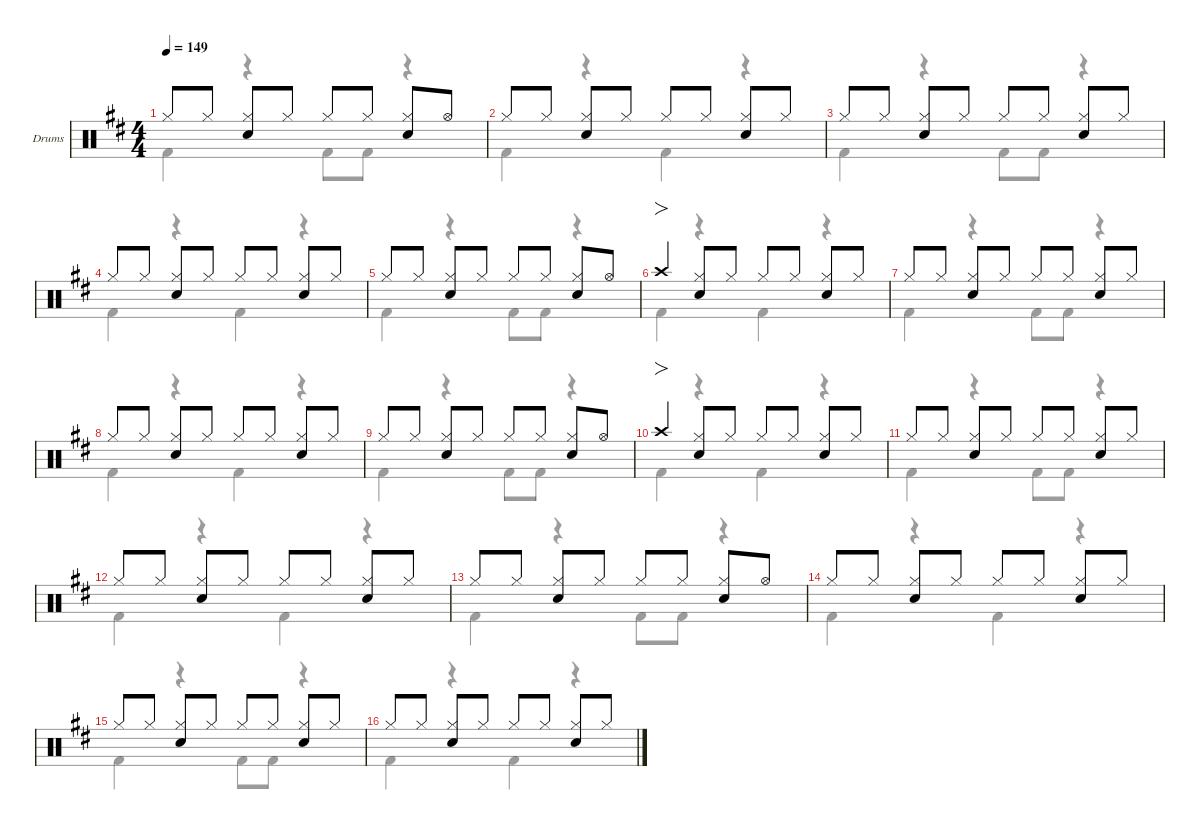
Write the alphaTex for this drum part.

\defaultSystemsLayout 4
\hideDynamics
\bracketExtendMode nobrackets
\firstSystemTrackNameOrientation horizontal
\track ("Drums" "Drums") {defaultSystemsLayout 4 instrument percussion}
\staff {score}
\articulation defaults
\voice
\ts (4 4)
\tempo 149
\clef neutral
\scale
0.244461
\ks d "Hi-Hat (closed)"{acc forcenatural}.8{dy f beam Up} "Hi-Hat (closed)"{acc forcenatural}.8{dy mp beam Up}
("Hi-Hat (closed)"{acc forcenatural} "Snare (hit) 2"{acc forcenatural}).8{dy f beam Up} "Hi-Hat (closed)"{acc forcenatural}.8{dy mp beam Up} "Hi-Hat (closed)"{acc forcenatural}.8{dy f beam Up} "Hi-Hat (closed)"{acc forcenatural}.8{dy mp beam Up} ("Hi-Hat (closed)"{acc forcenatural} "Snare (hit) 2"{acc forcenatural}).8{dy f beam Up} "Hi-Hat (open)"{acc forcenatural}.8{beam Up} |
\scale
0.266618 "Hi-Hat (closed)"{acc forcenatural}.8{beam Up} "Hi-Hat (closed)"{acc forcenatural}.8{dy mp beam Up} ("Hi-Hat (closed)"{acc forcenatural} "Snare (hit) 2"{acc forcenatural}).8{dy f beam Up} "Hi-Hat (closed)"{acc forcenatural}.8{dy mp beam Up} "Hi-Hat (closed)"{acc forcenatural}.8{dy f beam Up} "Hi-Hat (closed)"{acc forcenatural}.8{dy mp beam Up} ("Hi-Hat (closed)"{acc forcenatural} "Snare (hit) 2"{acc forcenatural}).8{dy f beam Up} "Hi-Hat (closed)"{acc forcenatural}.8{dy mp beam Up} |
\scale
0.244461 "Hi-Hat (closed)"{acc forcenatural}.8{dy f beam Up} "Hi-Hat (closed)"{acc forcenatural}.8{dy mp beam Up} ("Hi-Hat (closed)"{acc forcenatural} "Snare (hit) 2"{acc forcenatural}).8{dy f beam Up} "Hi-Hat (closed)"{acc forcenatural}.8{dy mp beam Up} "Hi-Hat (closed)"{acc forcenatural}.8{dy f beam Up} "Hi-Hat (closed)"{acc forcenatural}.8{dy mp beam Up} ("Hi-Hat (closed)"{acc forcenatural} "Snare (hit) 2"{acc forcenatural}).8{dy f beam Up} "Hi-Hat (closed)"{acc forcenatural}.8{dy mp beam Up} |
\scale
0.24446 "Hi-Hat (closed)"{acc forcenatural}.8{dy f beam Up} "Hi-Hat (closed)"{acc forcenatural}.8{dy mp beam Up} ("Hi-Hat (closed)"{acc forcenatural} "Snare (hit) 2"{acc forcenatural}).8{dy f beam Up} "Hi-Hat (closed)"{acc forcenatural}.8{dy mp beam Up} "Hi-Hat (closed)"{acc forcenatural}.8{dy f beam Up} "Hi-Hat (closed)"{acc forcenatural}.8{dy mp beam Up} ("Hi-Hat (closed)"{acc forcenatural} "Snare (hit) 2"{acc forcenatural}).8{dy f beam Up} "Hi-Hat (closed)"{acc forcenatural}.8{dy mp beam Up} |
\scale
0.244461 "Hi-Hat (closed)"{acc forcenatural}.8{dy f beam Up} "Hi-Hat (closed)"{acc forcenatural}.8{dy mp beam Up} ("Hi-Hat (closed)"{acc forcenatural} "Snare (hit) 2"{acc forcenatural}).8{dy f beam Up} "Hi-Hat (closed)"{acc forcenatural}.8{dy mp beam Up} "Hi-Hat (closed)"{acc forcenatural}.8{dy f beam Up} "Hi-Hat (closed)"{acc forcenatural}.8{dy mp beam Up} ("Hi-Hat (closed)"{acc forcenatural} "Snare (hit) 2"{acc forcenatural}).8{dy f beam Up} "Hi-Hat (open)"{acc forcenatural}.8{beam Up} |
\scale
0.266618 "Crash high (hit)"{acc forcenatural}.4{fo beam Up} ("Hi-Hat (closed)"{acc forcenatural} "Snare (hit) 2"{acc forcenatural}).8{beam Up} "Hi-Hat (closed)"{acc forcenatural}.8{dy mp beam Up} "Hi-Hat (closed)"{acc forcenatural}.8{dy f beam Up} "Hi-Hat (closed)"{acc forcenatural}.8{dy mp beam Up} ("Hi-Hat (closed)"{acc forcenatural} "Snare (hit) 2"{acc forcenatural}).8{dy f beam Up} "Hi-Hat (closed)"{acc forcenatural}.8{dy mp beam Up} |
\scale
0.24446 "Hi-Hat (closed)"{acc forcenatural}.8{dy f beam Up} "Hi-Hat (closed)"{acc forcenatural}.8{dy mp beam Up} ("Hi-Hat (closed)"{acc forcenatural} "Snare (hit) 2"{acc forcenatural}).8{dy f beam Up} "Hi-Hat (closed)"{acc forcenatural}.8{dy mp beam Up} "Hi-Hat (closed)"{acc forcenatural}.8{dy f beam Up} "Hi-Hat (closed)"{acc forcenatural}.8{dy mp beam Up} ("Hi-Hat (closed)"{acc forcenatural} "Snare (hit) 2"{acc forcenatural}).8{dy f beam Up} "Hi-Hat (closed)"{acc forcenatural}.8{dy mp beam Up} |
\scale
0.24446 "Hi-Hat (closed)"{acc forcenatural}.8{dy f beam Up} "Hi-Hat (closed)"{acc forcenatural}.8{dy mp beam Up} ("Hi-Hat (closed)"{acc forcenatural} "Snare (hit) 2"{acc forcenatural}).8{dy f beam Up} "Hi-Hat (closed)"{acc forcenatural}.8{dy mp beam Up} "Hi-Hat (closed)"{acc forcenatural}.8{dy f beam Up} "Hi-Hat (closed)"{acc forcenatural}.8{dy mp beam Up} ("Hi-Hat (closed)"{acc forcenatural} "Snare (hit) 2"{acc forcenatural}).8{dy f beam Up} "Hi-Hat (closed)"{acc forcenatural}.8{dy mp beam Up} |
\scale
0.244461 "Hi-Hat (closed)"{acc forcenatural}.8{dy f beam Up} "Hi-Hat (closed)"{acc forcenatural}.8{dy mp beam Up} ("Hi-Hat (closed)"{acc forcenatural} "Snare (hit) 2"{acc forcenatural}).8{dy f beam Up} "Hi-Hat (closed)"{acc forcenatural}.8{dy mp beam Up} "Hi-Hat (closed)"{acc forcenatural}.8{dy f beam Up} "Hi-Hat (closed)"{acc forcenatural}.8{dy mp beam Up} ("Hi-Hat (closed)"{acc forcenatural} "Snare (hit) 2"{acc forcenatural}).8{dy f beam Up} "Hi-Hat (open)"{acc forcenatural}.8{beam Up} |
\scale
0.266618 "Crash high (hit)"{acc forcenatural}.4{fo beam Up} ("Hi-Hat (closed)"{acc forcenatural} "Snare (hit) 2"{acc forcenatural}).8{beam Up} "Hi-Hat (closed)"{acc forcenatural}.8{dy mp beam Up} "Hi-Hat (closed)"{acc forcenatural}.8{dy f beam Up} "Hi-Hat (closed)"{acc forcenatural}.8{dy mp beam Up} ("Hi-Hat (closed)"{acc forcenatural} "Snare (hit) 2"{acc forcenatural}).8{dy f beam Up} "Hi-Hat (closed)"{acc forcenatural}.8{dy mp beam Up} |
\scale
0.244461 "Hi-Hat (closed)"{acc forcenatural}.8{dy f beam Up} "Hi-Hat (closed)"{acc forcenatural}.8{dy mp beam Up} ("Hi-Hat (closed)"{acc forcenatural} "Snare (hit) 2"{acc forcenatural}).8{dy f beam Up} "Hi-Hat (closed)"{acc forcenatural}.8{dy mp beam Up} "Hi-Hat (closed)"{acc forcenatural}.8{dy f beam Up} "Hi-Hat (closed)"{acc forcenatural}.8{dy mp beam Up} ("Hi-Hat (closed)"{acc forcenatural} "Snare (hit) 2"{acc forcenatural}).8{dy f beam Up} "Hi-Hat (closed)"{acc forcenatural}.8{dy mp beam Up} |
\scale
0.24446 "Hi-Hat (closed)"{acc forcenatural}.8{dy f beam Up} "Hi-Hat (closed)"{acc forcenatural}.8{dy mp beam Up} ("Hi-Hat (closed)"{acc forcenatural} "Snare (hit) 2"{acc forcenatural}).8{dy f beam Up} "Hi-Hat (closed)"{acc forcenatural}.8{dy mp beam Up} "Hi-Hat (closed)"{acc forcenatural}.8{dy f beam Up} "Hi-Hat (closed)"{acc forcenatural}.8{dy mp beam Up} ("Hi-Hat (closed)"{acc forcenatural} "Snare (hit) 2"{acc forcenatural}).8{dy f beam Up} "Hi-Hat (closed)"{acc forcenatural}.8{dy mp beam Up} |
\scale
0.244461 "Hi-Hat (closed)"{acc forcenatural}.8{dy f beam Up} "Hi-Hat (closed)"{acc forcenatural}.8{dy mp beam Up} ("Hi-Hat (closed)"{acc forcenatural} "Snare (hit) 2"{acc forcenatural}).8{dy f beam Up} "Hi-Hat (closed)"{acc forcenatural}.8{dy mp beam Up} "Hi-Hat (closed)"{acc forcenatural}.8{dy f beam Up} "Hi-Hat (closed)"{acc forcenatural}.8{dy mp beam Up} ("Hi-Hat (closed)"{acc forcenatural} "Snare (hit) 2"{acc forcenatural}).8{dy f beam Up} "Hi-Hat (open)"{acc forcenatural}.8{beam Up} |
\scale
0.266618 "Hi-Hat (closed)"{acc forcenatural}.8{beam Up} "Hi-Hat (closed)"{acc forcenatural}.8{dy mp beam Up} ("Hi-Hat (closed)"{acc forcenatural} "Snare (hit) 2"{acc forcenatural}).8{dy f beam Up} "Hi-Hat (closed)"{acc forcenatural}.8{dy mp beam Up} "Hi-Hat (closed)"{acc forcenatural}.8{dy f beam Up} "Hi-Hat (closed)"{acc forcenatural}.8{dy mp beam Up} ("Hi-Hat (closed)"{acc forcenatural} "Snare (hit) 2"{acc forcenatural}).8{dy f beam Up} "Hi-Hat (closed)"{acc forcenatural}.8{dy mp beam Up} |
\scale
0.244461 "Hi-Hat (closed)"{acc forcenatural}.8{dy f beam Up} "Hi-Hat (closed)"{acc forcenatural}.8{dy mp beam Up} ("Hi-Hat (closed)"{acc forcenatural} "Snare (hit) 2"{acc forcenatural}).8{dy f beam Up} "Hi-Hat (closed)"{acc forcenatural}.8{dy mp beam Up} "Hi-Hat (closed)"{acc forcenatural}.8{dy f beam Up} "Hi-Hat (closed)"{acc forcenatural}.8{dy mp beam Up} ("Hi-Hat (closed)"{acc forcenatural} "Snare (hit) 2"{acc forcenatural}).8{dy f beam Up} "Hi-Hat (closed)"{acc forcenatural}.8{dy mp beam Up} |
\scale
0.24446 "Hi-Hat (closed)"{acc forcenatural}.8{dy f beam Up} "Hi-Hat (closed)"{acc forcenatural}.8{dy mp beam Up} ("Hi-Hat (closed)"{acc forcenatural} "Snare (hit) 2"{acc forcenatural}).8{dy f beam Up} "Hi-Hat (closed)"{acc forcenatural}.8{dy mp beam Up} "Hi-Hat (closed)"{acc forcenatural}.8{dy f beam Up} "Hi-Hat (closed)"{acc forcenatural}.8{dy mp beam Up} ("Hi-Hat (closed)"{acc forcenatural} "Snare (hit) 2"{acc forcenatural}).8{dy f beam Up} "Hi-Hat (closed)"{acc forcenatural}.8{dy mp beam Up}
\voice
\clef neutral
\ottava regular
\simile none
\scale
0.244461
\ks d "Kick (hit) 2"{acc forcenatural}.4{dy f beam Down}
r.4{beam Down} "Kick (hit) 2"{acc forcenatural}.8{beam Down} "Kick (hit) 2"{acc forcenatural}.8{beam Down} r.4{beam Down} |
\scale
0.266618 "Kick (hit) 2"{acc forcenatural}.4{beam Down} r.4{beam Down} "Kick (hit) 2"{acc forcenatural}.4{beam Down} r.4{beam Down} |
\scale
0.244461 "Kick (hit) 2"{acc forcenatural}.4{beam Down} r.4{beam Down} "Kick (hit) 2"{acc forcenatural}.8{beam Down} "Kick (hit) 2"{acc forcenatural}.8{beam Down} r.4{beam Down} |
\scale
0.24446 "Kick (hit) 2"{acc forcenatural}.4{beam Down} r.4{beam Down} "Kick (hit) 2"{acc forcenatural}.4{beam Down} r.4{beam Down} |
\scale
0.244461 "Kick (hit) 2"{acc forcenatural}.4{beam Down} r.4{beam Down} "Kick (hit) 2"{acc forcenatural}.8{beam Down} "Kick (hit) 2"{acc forcenatural}.8{beam Down} r.4{beam Down} |
\scale
0.266618 "Kick (hit) 2"{acc forcenatural}.4{beam Down} r.4{beam Down} "Kick (hit) 2"{acc forcenatural}.4{beam Down} r.4{beam Down} |
\scale
0.24446 "Kick (hit) 2"{acc forcenatural}.4{beam Down} r.4{beam Down} "Kick (hit) 2"{acc forcenatural}.8{beam Down} "Kick (hit) 2"{acc forcenatural}.8{beam Down} r.4{beam Down} |
\scale
0.24446 "Kick (hit) 2"{acc forcenatural}.4{beam Down} r.4{beam Down} "Kick (hit) 2"{acc forcenatural}.4{beam Down} r.4{beam Down} |
\scale
0.244461 "Kick (hit) 2"{acc forcenatural}.4{beam Down} r.4{beam Down} "Kick (hit) 2"{acc forcenatural}.8{beam Down} "Kick (hit) 2"{acc forcenatural}.8{beam Down} r.4{beam Down} |
\scale
0.266618 "Kick (hit) 2"{acc forcenatural}.4{beam Down} r.4{beam Down} "Kick (hit) 2"{acc forcenatural}.4{beam Down} r.4{beam Down} |
\scale
0.244461 "Kick (hit) 2"{acc forcenatural}.4{beam Down} r.4{beam Down} "Kick (hit) 2"{acc forcenatural}.8{beam Down} "Kick (hit) 2"{acc forcenatural}.8{beam Down} r.4{beam Down} |
\scale
0.24446 "Kick (hit) 2"{acc forcenatural}.4{beam Down} r.4{beam Down} "Kick (hit) 2"{acc forcenatural}.4{beam Down} r.4{beam Down} |
\scale
0.244461 "Kick (hit) 2"{acc forcenatural}.4{beam Down} r.4{beam Down} "Kick (hit) 2"{acc forcenatural}.8{beam Down} "Kick (hit) 2"{acc forcenatural}.8{beam Down} r.4{beam Down} |
\scale
0.266618 "Kick (hit) 2"{acc forcenatural}.4{beam Down} r.4{beam Down} "Kick (hit) 2"{acc forcenatural}.4{beam Down} r.4{beam Down} |
\scale
0.244461 "Kick (hit) 2"{acc forcenatural}.4{beam Down} r.4{beam Down} "Kick (hit) 2"{acc forcenatural}.8{beam Down} "Kick (hit) 2"{acc forcenatural}.8{beam Down} r.4{beam Down} |
\scale
0.24446 "Kick (hit) 2"{acc forcenatural}.4{beam Down} r.4{beam Down} "Kick (hit) 2"{acc forcenatural}.4{beam Down} r.4{beam Down}
